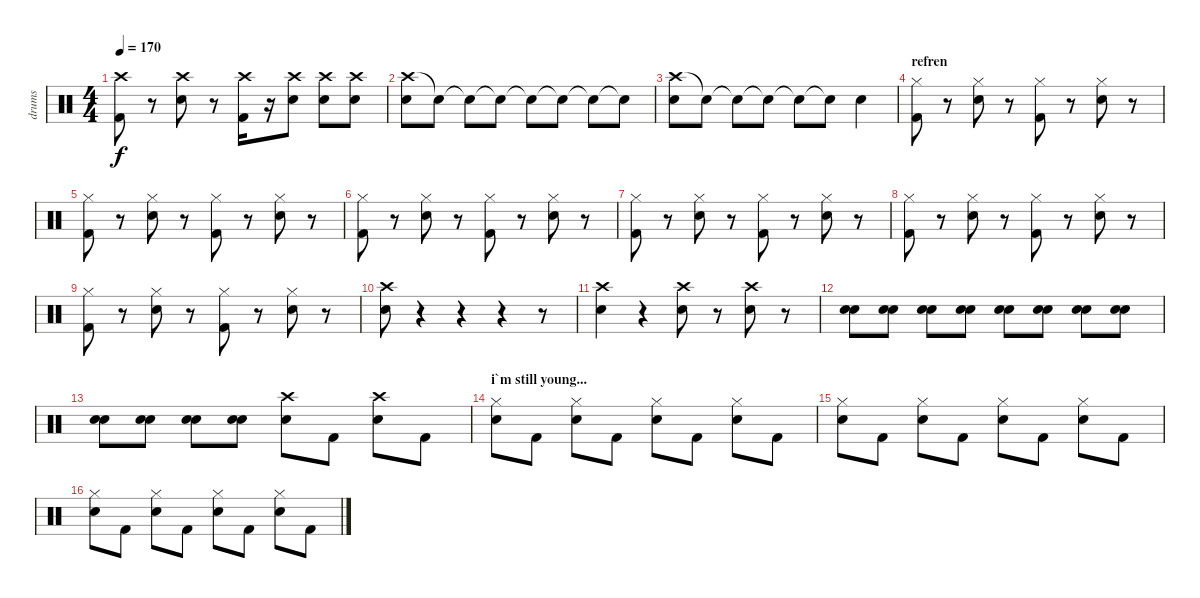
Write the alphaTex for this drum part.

\track ("drums" "drums") {instrument percussion}
\staff {score}
\articulation defaults
\ts (4 4)
\tempo 170
\clef neutral
\ks c
("Crash high (hit)" "Kick (hit) 2").8{dy f} r.8 ("Crash high (hit)" "Snare (hit) 2").8 r.8 ("Crash high (hit)" "Kick (hit) 2").16 r.16 ("Crash high (hit)" "Snare (hit) 2").8 ("Crash high (hit)" "Snare (hit) 2").8 ("Crash high (hit)" "Snare (hit) 2").8 |
("Crash high (hit)" "Snare (hit) 2").8 "Snare (hit)"{t}.8 "Snare (hit)"{t}.8 "Snare (hit)"{t}.8 "Snare (hit)"{t}.8 "Snare (hit)"{t}.8 "Snare (hit)"{t}.8 "Snare (hit)"{t}.8 |
("Crash high (hit)" "Snare (hit) 2").8 "Snare (hit)"{t}.8 "Snare (hit)"{t}.8 "Snare (hit)"{t}.8 "Snare (hit)"{t}.8 "Snare (hit)"{t}.8 "Snare (hit) 2".4 |
\section ("" "refren")
("Hi-Hat (closed)" "Kick (hit) 2").8 r.8 ("Hi-Hat (closed)" "Snare (hit) 2").8 r.8 ("Hi-Hat (closed)" "Kick (hit) 2").8 r.8 ("Hi-Hat (closed)" "Snare (hit) 2").8 r.8 |
("Hi-Hat (closed)" "Kick (hit) 2").8 r.8 ("Hi-Hat (closed)" "Snare (hit) 2").8 r.8 ("Hi-Hat (closed)" "Kick (hit) 2").8 r.8 ("Hi-Hat (closed)" "Snare (hit) 2").8 r.8 |
("Hi-Hat (closed)" "Kick (hit) 2").8 r.8 ("Hi-Hat (closed)" "Snare (hit) 2").8 r.8 ("Hi-Hat (closed)" "Kick (hit) 2").8 r.8 ("Hi-Hat (closed)" "Snare (hit) 2").8 r.8 |
("Hi-Hat (closed)" "Kick (hit) 2").8 r.8 ("Hi-Hat (closed)" "Snare (hit) 2").8 r.8 ("Hi-Hat (closed)" "Kick (hit) 2").8 r.8 ("Hi-Hat (closed)" "Snare (hit) 2").8 r.8 |
("Hi-Hat (closed)" "Kick (hit) 2").8 r.8 ("Hi-Hat (closed)" "Snare (hit) 2").8 r.8 ("Hi-Hat (closed)" "Kick (hit) 2").8 r.8 ("Hi-Hat (closed)" "Snare (hit) 2").8 r.8 |
("Hi-Hat (closed)" "Kick (hit) 2").8 r.8 ("Hi-Hat (closed)" "Snare (hit) 2").8 r.8 ("Hi-Hat (closed)" "Kick (hit) 2").8 r.8 ("Hi-Hat (closed)" "Snare (hit) 2").8 r.8 |
("Crash high (hit)" "Snare (hit) 2").8 r.4 r.4 r.4 r.8 |
("Crash high (hit)" "Snare (hit) 2").4 r.4 ("Crash high (hit)" "Snare (hit) 2").8 r.8 ("Crash high (hit)" "Snare (hit) 2").8 r.8{volume 0} |
("Snare (hit) 2" "Snare (hit) 2").8{volume 16} ("Snare (hit) 2" "Snare (hit) 2").8 ("Snare (hit) 2" "Snare (hit) 2").8 ("Snare (hit) 2" "Snare (hit) 2").8 ("Snare (hit) 2" "Snare (hit) 2").8 ("Snare (hit) 2" "Snare (hit) 2").8 ("Snare (hit) 2" "Snare (hit) 2").8 ("Snare (hit) 2" "Snare (hit) 2").8 |
("Snare (hit) 2" "Snare (hit) 2").8 ("Snare (hit) 2" "Snare (hit) 2").8 ("Snare (hit) 2" "Snare (hit) 2").8 ("Snare (hit) 2" "Snare (hit) 2").8 ("Crash high (hit)" "Snare (hit) 2").8{volume 13} "Kick (hit) 2".8 ("Crash high (hit)" "Snare (hit) 2").8 "Kick (hit) 2".8 |
\section ("" "i`m still young...")
("Hi-Hat (closed)" "Snare (hit) 2").8 "Kick (hit) 2".8 ("Hi-Hat (closed)" "Snare (hit) 2").8 "Kick (hit) 2".8 ("Hi-Hat (closed)" "Snare (hit) 2").8 "Kick (hit) 2".8 ("Hi-Hat (closed)" "Snare (hit) 2").8 "Kick (hit) 2".8 |
("Hi-Hat (closed)" "Snare (hit) 2").8 "Kick (hit) 2".8 ("Hi-Hat (closed)" "Snare (hit) 2").8 "Kick (hit) 2".8 ("Hi-Hat (closed)" "Snare (hit) 2").8 "Kick (hit) 2".8 ("Hi-Hat (closed)" "Snare (hit) 2").8 "Kick (hit) 2".8 |
("Hi-Hat (closed)" "Snare (hit) 2").8 "Kick (hit) 2".8 ("Hi-Hat (closed)" "Snare (hit) 2").8 "Kick (hit) 2".8 ("Hi-Hat (closed)" "Snare (hit) 2").8 "Kick (hit) 2".8 ("Hi-Hat (closed)" "Snare (hit) 2").8 "Kick (hit) 2".8
